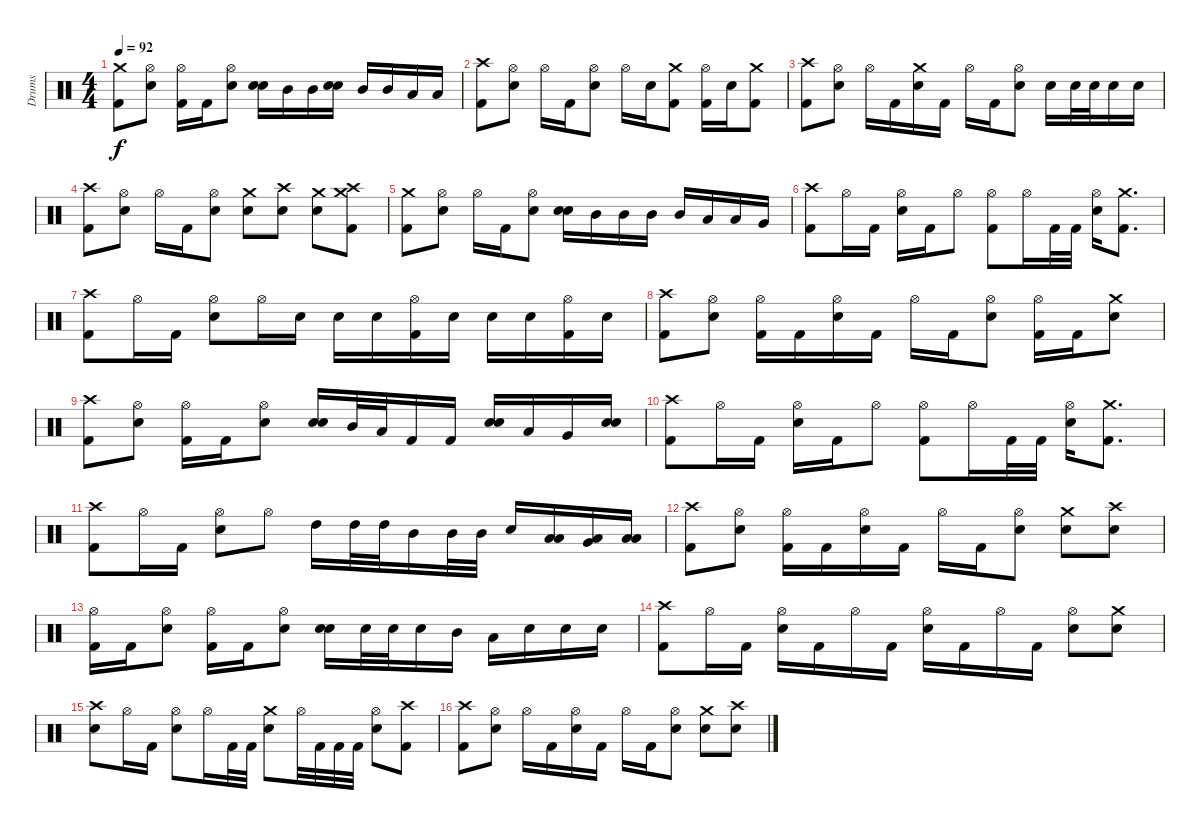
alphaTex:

\track ("Drums" "Drums") {instrument percussion}
\staff {score}
\articulation defaults
\ts (4 4)
\tempo 92
\clef neutral
\ks c
("Crash medium (hit)" "Kick (hit) 2").8{dy f} ("Hi-Hat (open)" "Electric Snare (hit)").8 ("Hi-Hat (open)" "Kick (hit) 2").16 "Kick (hit) 2".16 ("Hi-Hat (open)" "Electric Snare (hit)").8 ("Electric Snare (hit)" "Electric Snare (hit)").16{bd 30} "Mid Tom (hit)".16 "Mid Tom (hit)".16 ("Electric Snare (hit)" "Electric Snare (hit)").16{bd 30} "Mid Tom (hit)".16 "Mid Tom (hit)".16 "Low Tom (hit)".16 "Low Tom (hit)".16 |
("Crash high (hit)" "Kick (hit) 2").8 ("Hi-Hat (open)" "Electric Snare (hit)").8 "Hi-Hat (open)".16 "Kick (hit) 2".16 ("Hi-Hat (open)" "Electric Snare (hit)").8 "Hi-Hat (open)".16 "Electric Snare (hit)".16 ("Crash medium (hit)" "Kick (hit) 2").8 ("Hi-Hat (open)" "Kick (hit) 2").16 "Electric Snare (hit)".16 ("Crash medium (hit)" "Kick (hit) 2").8 |
("Crash high (hit)" "Kick (hit) 2").8 ("Hi-Hat (open)" "Electric Snare (hit)").8 "Hi-Hat (open)".16 "Kick (hit) 2".16 ("Crash medium (hit)" "Electric Snare (hit)").16 "Kick (hit) 2".16 "Hi-Hat (open)".16 "Kick (hit) 2".16 ("Hi-Hat (open)" "Electric Snare (hit)").8 "Electric Snare (hit)".16 "Electric Snare (hit)".32 "Electric Snare (hit)".32 "Electric Snare (hit)".16 "Electric Snare (hit)".16 |
("Crash high (hit)" "Kick (hit) 2").8 ("Hi-Hat (open)" "Electric Snare (hit)").8 "Hi-Hat (open)".16 "Kick (hit) 2".16 ("Hi-Hat (open)" "Electric Snare (hit)").8 ("Crash medium (hit)" "Electric Snare (hit)").8 ("Crash high (hit)" "Electric Snare (hit)").8 ("Crash medium (hit)" "Electric Snare (hit)").8 ("Crash high (hit)" "Crash medium (hit)" "Kick (hit) 2").8 |
("Crash medium (hit)" "Kick (hit) 2").8 ("Hi-Hat (open)" "Electric Snare (hit)").8 "Hi-Hat (open)".16 "Kick (hit) 2".16 ("Hi-Hat (open)" "Electric Snare (hit)").8 ("Electric Snare (hit)" "Electric Snare (hit)").16{bd 30} "Mid Tom (hit)".16 "Mid Tom (hit)".16 "Mid Tom (hit)".16 "Mid Tom (hit)".16 "Low Tom (hit)".16 "Low Tom (hit)".16 "Very Low Tom (hit)".16 |
("Crash high (hit)" "Kick (hit) 2").8 "Hi-Hat (open)".16 "Kick (hit) 2".16 ("Hi-Hat (open)" "Electric Snare (hit)").16 "Kick (hit) 2".16 "Hi-Hat (open)".8 ("Hi-Hat (open)" "Kick (hit) 2").8 "Hi-Hat (open)".16 "Kick (hit) 2".32 "Kick (hit) 2".32 ("Hi-Hat (open)" "Electric Snare (hit)").16 ("Crash medium (hit)" "Kick (hit) 2").8{d} |
("Crash high (hit)" "Kick (hit) 2").8 "Hi-Hat (open)".16 "Kick (hit) 2".16 ("Hi-Hat (open)" "Electric Snare (hit)").8 "Hi-Hat (open)".16 "Electric Snare (hit)".16 "Electric Snare (hit)".16 "Electric Snare (hit)".16 ("Hi-Hat (open)" "Kick (hit) 2").16 "Electric Snare (hit)".16 "Electric Snare (hit)".16 "Electric Snare (hit)".16 ("Hi-Hat (open)" "Kick (hit) 2").16 "Electric Snare (hit)".16 |
("Crash high (hit)" "Kick (hit) 2").8 ("Hi-Hat (open)" "Electric Snare (hit)").8 ("Hi-Hat (open)" "Kick (hit) 2").16 "Kick (hit) 2".16 ("Hi-Hat (open)" "Electric Snare (hit)").16 "Kick (hit) 2".16 "Hi-Hat (open)".16 "Kick (hit) 2".16 ("Hi-Hat (open)" "Electric Snare (hit)").8 ("Hi-Hat (open)" "Kick (hit) 2").16 "Kick (hit) 2".16 ("Crash medium (hit)" "Electric Snare (hit)").8 |
("Crash high (hit)" "Kick (hit) 2").8 ("Hi-Hat (open)" "Electric Snare (hit)").8 ("Hi-Hat (open)" "Kick (hit) 2").16 "Kick (hit) 2".16 ("Hi-Hat (open)" "Electric Snare (hit)").8 ("Electric Snare (hit)" "Electric Snare (hit)").16{bd 30} "Mid Tom (hit)".32 "Low Tom (hit)".32 "Kick (hit) 2".16 "Kick (hit) 2".16 ("Electric Snare (hit)" "Electric Snare (hit)").16{bd 30} "Low Tom (hit)".16 "Very Low Tom (hit)".16 ("Electric Snare (hit)" "Electric Snare (hit)").16{bd 30} |
("Crash high (hit)" "Kick (hit) 2").8 "Hi-Hat (open)".16 "Kick (hit) 2".16 ("Hi-Hat (open)" "Electric Snare (hit)").16 "Kick (hit) 2".16 "Hi-Hat (open)".8 ("Hi-Hat (open)" "Kick (hit) 2").8 "Hi-Hat (open)".16 "Kick (hit) 2".32 "Kick (hit) 2".32 ("Hi-Hat (open)" "Electric Snare (hit)").16 ("Crash medium (hit)" "Kick (hit) 2").8{d} |
("Crash high (hit)" "Kick (hit) 2").8 "Hi-Hat (open)".16 "Kick (hit) 2".16 ("Hi-Hat (open)" "Electric Snare (hit)").8 "Hi-Hat (open)".8 "High Tom (hit)".16 "High Tom (hit)".32 "High Tom (hit)".32 "Mid Tom (hit)".16 "Mid Tom (hit)".32 "Mid Tom (hit)".32 "Electric Snare (hit)".16 ("Low Floor Tom (hit)" "Low Tom (hit)").16 ("Low Floor Tom (hit)" "Very Low Tom (hit)").16 ("Low Floor Tom (hit)" "Low Floor Tom (hit)").16 |
("Crash high (hit)" "Kick (hit) 2").8 ("Hi-Hat (open)" "Electric Snare (hit)").8 ("Hi-Hat (open)" "Kick (hit) 2").16 "Kick (hit) 2".16 ("Hi-Hat (open)" "Electric Snare (hit)").16 "Kick (hit) 2".16 "Hi-Hat (open)".16 "Kick (hit) 2".16 ("Hi-Hat (open)" "Electric Snare (hit)").8 ("Crash medium (hit)" "Electric Snare (hit)").8 ("Crash high (hit)" "Electric Snare (hit)").8 |
("Hi-Hat (open)" "Kick (hit) 2").16 "Kick (hit) 2".16 ("Hi-Hat (open)" "Electric Snare (hit)").8 ("Hi-Hat (open)" "Kick (hit) 2").16 "Kick (hit) 2".16 ("Hi-Hat (open)" "Electric Snare (hit)").8 ("Electric Snare (hit)" "Electric Snare (hit)").16{bd 30} "Electric Snare (hit)".32 "Electric Snare (hit)".32 "Electric Snare (hit)".16 "Mid Tom (hit)".16 "Low Tom (hit)".16 "Electric Snare (hit)".16 "Electric Snare (hit)".16 "Electric Snare (hit)".16 |
("Crash high (hit)" "Kick (hit) 2").8 "Hi-Hat (open)".16 "Kick (hit) 2".16 ("Hi-Hat (open)" "Electric Snare (hit)").16 "Kick (hit) 2".16 "Hi-Hat (open)".16 "Kick (hit) 2".16 ("Hi-Hat (open)" "Electric Snare (hit)").16 "Kick (hit) 2".16 "Hi-Hat (open)".16 "Kick (hit) 2".16 ("Hi-Hat (open)" "Electric Snare (hit)").8 ("Crash medium (hit)" "Electric Snare (hit)").8 |
("Crash high (hit)" "Electric Snare (hit)").8 "Hi-Hat (open)".16 "Kick (hit) 2".16 ("Hi-Hat (open)" "Electric Snare (hit)").8 "Hi-Hat (open)".16 "Kick (hit) 2".32 "Kick (hit) 2".32 ("Crash medium (hit)" "Electric Snare (hit)").8 "Hi-Hat (open)".32 "Kick (hit) 2".32 "Kick (hit) 2".32 "Kick (hit) 2".32 ("Hi-Hat (open)" "Electric Snare (hit)").8 ("Crash high (hit)" "Kick (hit) 2").8 |
("Crash high (hit)" "Kick (hit) 2").8 ("Hi-Hat (open)" "Electric Snare (hit)").8 "Hi-Hat (open)".16 "Kick (hit) 2".16 ("Hi-Hat (open)" "Electric Snare (hit)").16 "Kick (hit) 2".16 "Hi-Hat (open)".16 "Kick (hit) 2".16 ("Hi-Hat (open)" "Electric Snare (hit)").8 ("Crash medium (hit)" "Electric Snare (hit)").8 ("Crash high (hit)" "Electric Snare (hit)").8
